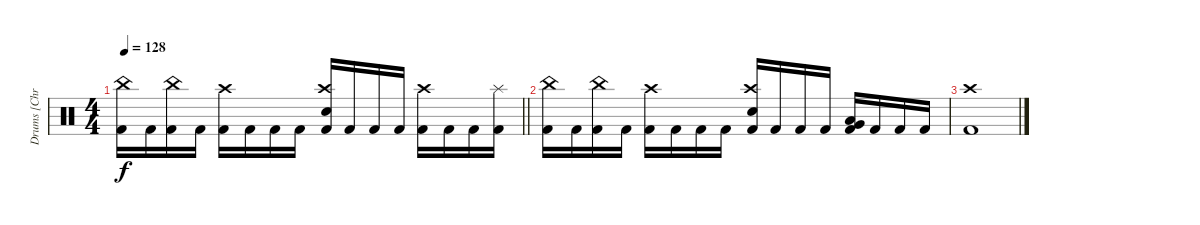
\track ("Drums [Chris Adler]" "Drums [Chr") {instrument percussion}
\staff {score}
\articulation defaults
\ts (4 4)
\tempo 128
\clef neutral
\barLineRight lightlight
\ks c
("China (hit)" "Kick (hit) 2").16{dy f} "Kick (hit) 2".16 ("China (hit)" "Kick (hit) 2").16 "Kick (hit) 2".16 ("Crash high (hit)" "Kick (hit) 2").16 "Kick (hit) 2".16 "Kick (hit) 2".16 "Kick (hit) 2".16 ("Crash high (hit)" "Snare (hit) 2" "Kick (hit) 2").16 "Kick (hit) 2".16 "Kick (hit) 2".16 "Kick (hit) 2".16 ("Crash high (hit)" "Kick (hit) 2").16 "Kick (hit) 2".16 "Kick (hit) 2".16 ("Splash (hit)" "Kick (hit) 2").16 |
("China (hit)" "Kick (hit) 2").16 "Kick (hit) 2".16 ("China (hit)" "Kick (hit) 2").16 "Kick (hit) 2".16 ("Crash high (hit)" "Kick (hit) 2").16 "Kick (hit) 2".16 "Kick (hit) 2".16 "Kick (hit) 2".16 ("Crash high (hit)" "Snare (hit) 2" "Kick (hit) 2").16 "Kick (hit) 2".16 "Kick (hit) 2".16 "Kick (hit) 2".16 ("Very Low Tom (hit)" "Low Floor Tom (hit)" "Kick (hit) 2").16 "Kick (hit) 2".16 "Kick (hit) 2".16 "Kick (hit) 2".16 |
("Crash high (hit)" "Kick (hit) 2").1
